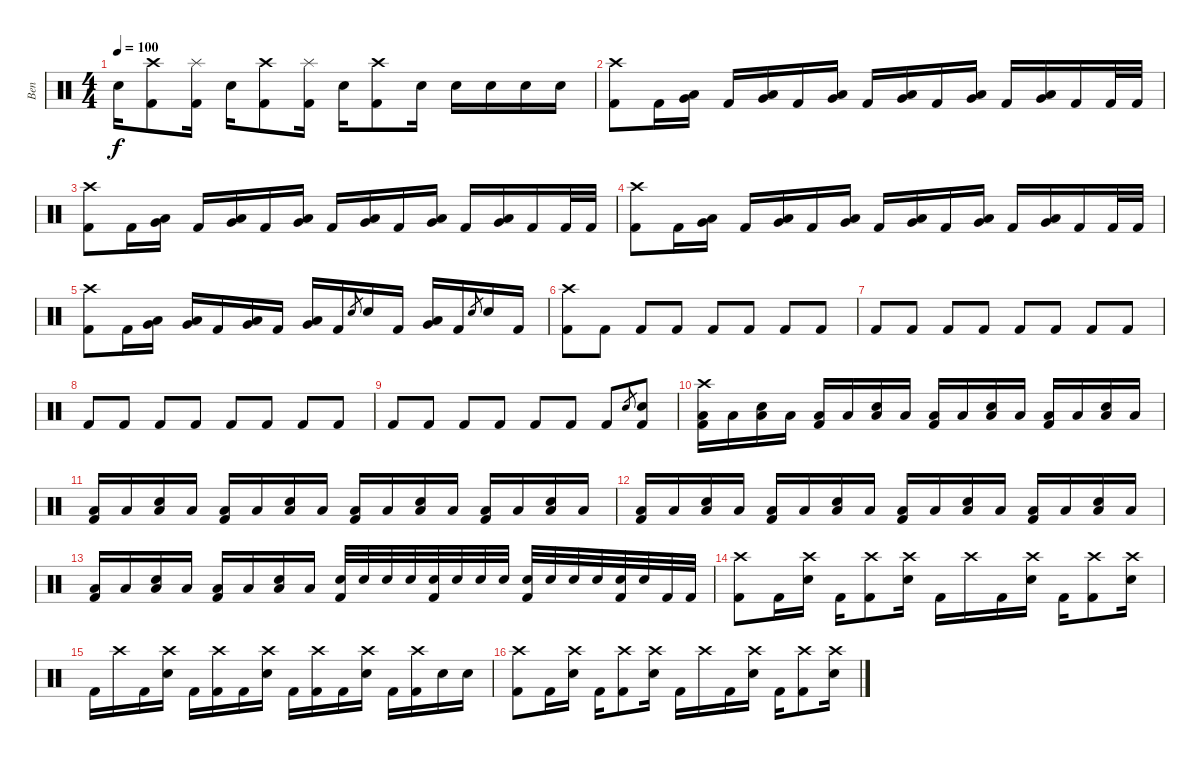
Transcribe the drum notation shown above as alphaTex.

\track ("Ben" "Ben") {instrument percussion}
\staff {score}
\articulation defaults
\ts (4 4)
\tempo 100
\clef neutral
\ks c "Snare (hit) 2".16{dy f}
("Crash high (hit)" "Kick (hit) 2").8 ("Splash (hit)" "Kick (hit) 2").16 "Snare (hit) 2".16 ("Crash high (hit)" "Kick (hit) 2").8 ("Splash (hit)" "Kick (hit) 2").16 "Snare (hit) 2".16 ("Crash high (hit)" "Kick (hit) 2").8 "Snare (hit) 2".16 "Snare (hit) 2".16 "Snare (hit) 2".16 "Snare (hit) 2".16 "Snare (hit) 2".16 |
("Crash high (hit)" "Kick (hit) 2").8 "Kick (hit) 2".16 ("Low Tom (hit)" "Very Low Tom (hit)").16 "Kick (hit) 2".16 ("Very Low Tom (hit)" "Low Floor Tom (hit)").16 "Kick (hit) 2".16 ("Low Tom (hit)" "Very Low Tom (hit)").16 "Kick (hit) 2".16 ("Very Low Tom (hit)" "Low Floor Tom (hit)").16 "Kick (hit) 2".16 ("Low Tom (hit)" "Very Low Tom (hit)").16 "Kick (hit) 2".16 ("Very Low Tom (hit)" "Low Floor Tom (hit)").16 "Kick (hit) 2".16 "Kick (hit) 2".32 "Kick (hit) 2".32 |
("Crash high (hit)" "Kick (hit) 2").8 "Kick (hit) 2".16 ("Low Tom (hit)" "Very Low Tom (hit)").16 "Kick (hit) 2".16 ("Very Low Tom (hit)" "Low Floor Tom (hit)").16 "Kick (hit) 2".16 ("Low Tom (hit)" "Very Low Tom (hit)").16 "Kick (hit) 2".16 ("Very Low Tom (hit)" "Low Floor Tom (hit)").16 "Kick (hit) 2".16 ("Low Tom (hit)" "Very Low Tom (hit)").16 "Kick (hit) 2".16 ("Very Low Tom (hit)" "Low Floor Tom (hit)").16 "Kick (hit) 2".16 "Kick (hit) 2".32 "Kick (hit) 2".32 |
("Crash high (hit)" "Kick (hit) 2").8 "Kick (hit) 2".16 ("Low Tom (hit)" "Very Low Tom (hit)").16 "Kick (hit) 2".16 ("Very Low Tom (hit)" "Low Floor Tom (hit)").16 "Kick (hit) 2".16 ("Low Tom (hit)" "Very Low Tom (hit)").16 "Kick (hit) 2".16 ("Very Low Tom (hit)" "Low Floor Tom (hit)").16 "Kick (hit) 2".16 ("Low Tom (hit)" "Very Low Tom (hit)").16 "Kick (hit) 2".16 ("Very Low Tom (hit)" "Low Floor Tom (hit)").16 "Kick (hit) 2".16 "Kick (hit) 2".32 "Kick (hit) 2".32 |
("Crash high (hit)" "Kick (hit) 2").8 "Kick (hit) 2".16 ("Low Tom (hit)" "Very Low Tom (hit)").16 ("Very Low Tom (hit)" "Low Floor Tom (hit)").16 "Kick (hit) 2".16 ("Low Tom (hit)" "Very Low Tom (hit)").16 "Kick (hit) 2".16 ("Very Low Tom (hit)" "Low Floor Tom (hit)").16 "Kick (hit) 2".16 "Snare (hit) 2".8{gr} "Snare (hit) 2".16 "Kick (hit) 2".16 ("Very Low Tom (hit)" "Low Floor Tom (hit)").16 "Kick (hit) 2".16 "Snare (hit) 2".8{gr} "Snare (hit) 2".16 "Kick (hit) 2".16 |
("Crash high (hit)" "Kick (hit) 2").8 "Kick (hit) 2".8 "Kick (hit) 2".8 "Kick (hit) 2".8 "Kick (hit) 2".8 "Kick (hit) 2".8 "Kick (hit) 2".8 "Kick (hit) 2".8 |
"Kick (hit) 2".8 "Kick (hit) 2".8 "Kick (hit) 2".8 "Kick (hit) 2".8 "Kick (hit) 2".8 "Kick (hit) 2".8 "Kick (hit) 2".8 "Kick (hit) 2".8 |
"Kick (hit) 2".8 "Kick (hit) 2".8 "Kick (hit) 2".8 "Kick (hit) 2".8 "Kick (hit) 2".8 "Kick (hit) 2".8 "Kick (hit) 2".8 "Kick (hit) 2".8 |
"Kick (hit) 2".8 "Kick (hit) 2".8 "Kick (hit) 2".8 "Kick (hit) 2".8 "Kick (hit) 2".8 "Kick (hit) 2".8 "Kick (hit) 2".8 "Snare (hit) 2".8{gr} ("Snare (hit) 2" "Kick (hit) 2").8 |
("Crash high (hit)" "Kick (hit) 2" "Low Floor Tom (hit)").16 "Low Floor Tom (hit)".16 ("Snare (hit) 2" "Low Floor Tom (hit)").16 "Low Floor Tom (hit)".16 ("Kick (hit) 2" "Low Floor Tom (hit)").16 "Low Floor Tom (hit)".16 ("Snare (hit) 2" "Low Floor Tom (hit)").16 "Low Floor Tom (hit)".16 ("Kick (hit) 2" "Low Floor Tom (hit)").16 "Low Floor Tom (hit)".16 ("Snare (hit) 2" "Low Floor Tom (hit)").16 "Low Floor Tom (hit)".16 ("Kick (hit) 2" "Low Floor Tom (hit)").16 "Low Floor Tom (hit)".16 ("Snare (hit) 2" "Low Floor Tom (hit)").16 "Low Floor Tom (hit)".16 |
("Kick (hit) 2" "Low Floor Tom (hit)").16 "Low Floor Tom (hit)".16 ("Snare (hit) 2" "Low Floor Tom (hit)").16 "Low Floor Tom (hit)".16 ("Kick (hit) 2" "Low Floor Tom (hit)").16 "Low Floor Tom (hit)".16 ("Snare (hit) 2" "Low Floor Tom (hit)").16 "Low Floor Tom (hit)".16 ("Kick (hit) 2" "Low Floor Tom (hit)").16 "Low Floor Tom (hit)".16 ("Snare (hit) 2" "Low Floor Tom (hit)").16 "Low Floor Tom (hit)".16 ("Kick (hit) 2" "Low Floor Tom (hit)").16 "Low Floor Tom (hit)".16 ("Snare (hit) 2" "Low Floor Tom (hit)").16 "Low Floor Tom (hit)".16 |
("Kick (hit) 2" "Low Floor Tom (hit)").16 "Low Floor Tom (hit)".16 ("Snare (hit) 2" "Low Floor Tom (hit)").16 "Low Floor Tom (hit)".16 ("Kick (hit) 2" "Low Floor Tom (hit)").16 "Low Floor Tom (hit)".16 ("Snare (hit) 2" "Low Floor Tom (hit)").16 "Low Floor Tom (hit)".16 ("Kick (hit) 2" "Low Floor Tom (hit)").16 "Low Floor Tom (hit)".16 ("Snare (hit) 2" "Low Floor Tom (hit)").16 "Low Floor Tom (hit)".16 ("Kick (hit) 2" "Low Floor Tom (hit)").16 "Low Floor Tom (hit)".16 ("Snare (hit) 2" "Low Floor Tom (hit)").16 "Low Floor Tom (hit)".16 |
("Kick (hit) 2" "Low Floor Tom (hit)").16 "Low Floor Tom (hit)".16 ("Snare (hit) 2" "Low Floor Tom (hit)").16 "Low Floor Tom (hit)".16 ("Kick (hit) 2" "Low Floor Tom (hit)").16 "Low Floor Tom (hit)".16 ("Snare (hit) 2" "Low Floor Tom (hit)").16 "Low Floor Tom (hit)".16 ("Kick (hit) 2" "Snare (hit) 2").32 "Snare (hit) 2".32 "Snare (hit) 2".32 "Snare (hit) 2".32 ("Kick (hit) 2" "Snare (hit) 2").32 "Snare (hit) 2".32 "Snare (hit) 2".32 "Snare (hit) 2".32 ("Kick (hit) 2" "Snare (hit) 2").32 "Snare (hit) 2".32 "Snare (hit) 2".32 "Snare (hit) 2".32 ("Kick (hit) 2" "Snare (hit) 2").32 "Snare (hit) 2".32 "Kick (hit) 2".32 "Kick (hit) 2".32 |
("Crash high (hit)" "Kick (hit) 2").8 "Kick (hit) 2".16 ("Crash high (hit)" "Snare (hit) 2").16 "Kick (hit) 2".16 ("Crash high (hit)" "Kick (hit) 2").8 ("Crash high (hit)" "Snare (hit) 2").16 "Kick (hit) 2".16 "Crash high (hit)".16 "Kick (hit) 2".16 ("Crash high (hit)" "Snare (hit) 2").16 "Kick (hit) 2".16 ("Crash high (hit)" "Kick (hit) 2").8 ("Crash high (hit)" "Snare (hit) 2").16 |
"Kick (hit) 2".16 "Crash high (hit)".16 "Kick (hit) 2".16 ("Crash high (hit)" "Snare (hit) 2").16 "Kick (hit) 2".16 ("Crash high (hit)" "Kick (hit) 2").16 "Kick (hit) 2".16 ("Crash high (hit)" "Snare (hit) 2").16 "Kick (hit) 2".16 ("Crash high (hit)" "Kick (hit) 2").16 "Kick (hit) 2".16 ("Crash high (hit)" "Snare (hit) 2").16 "Kick (hit) 2".16 ("Crash high (hit)" "Kick (hit) 2").16 "Snare (hit) 2".16 "Snare (hit) 2".16 |
("Crash high (hit)" "Kick (hit) 2").8 "Kick (hit) 2".16 ("Crash high (hit)" "Snare (hit) 2").16 "Kick (hit) 2".16 ("Crash high (hit)" "Kick (hit) 2").8 ("Crash high (hit)" "Snare (hit) 2").16 "Kick (hit) 2".16 "Crash high (hit)".16 "Kick (hit) 2".16 ("Crash high (hit)" "Snare (hit) 2").16 "Kick (hit) 2".16 ("Crash high (hit)" "Kick (hit) 2").8 ("Crash high (hit)" "Snare (hit) 2").16
